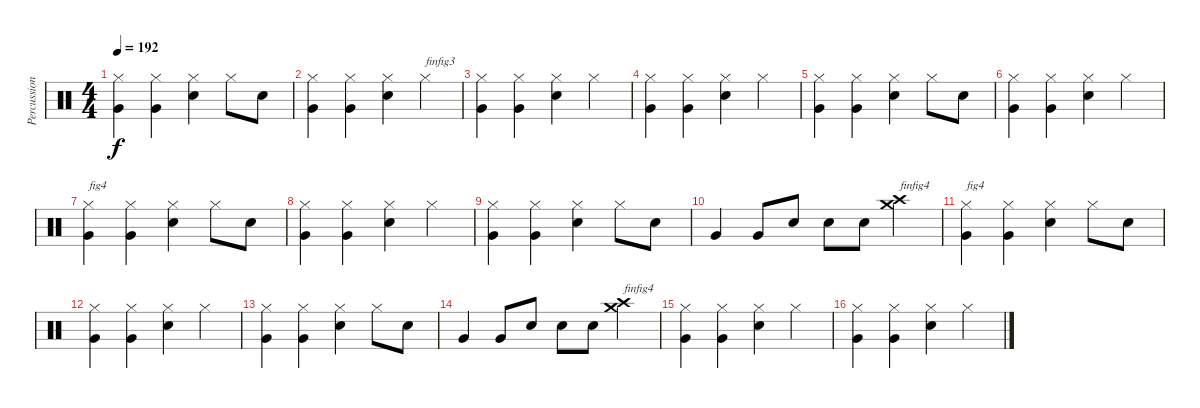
\track ("Percussions" "Percussion") {instrument percussion}
\staff {score}
\articulation defaults
\ts (4 4)
\tempo 192
\clef neutral
\ks c
("Very Low Tom (hit)" "Hi-Hat (closed)").4{dy f} ("Very Low Tom (hit)" "Hi-Hat (closed)").4 ("Snare (hit) 2" "Hi-Hat (closed)").4 "Hi-Hat (closed)".8 "Snare (hit) 2".8 |
("Very Low Tom (hit)" "Hi-Hat (closed)").4 ("Very Low Tom (hit)" "Hi-Hat (closed)").4 ("Snare (hit) 2" "Hi-Hat (closed)").4 "Hi-Hat (closed)".4{txt "finfig3"} |
("Very Low Tom (hit)" "Hi-Hat (closed)").4 ("Very Low Tom (hit)" "Hi-Hat (closed)").4 ("Snare (hit) 2" "Hi-Hat (closed)").4 "Hi-Hat (closed)".4 |
("Very Low Tom (hit)" "Hi-Hat (closed)").4 ("Very Low Tom (hit)" "Hi-Hat (closed)").4 ("Snare (hit) 2" "Hi-Hat (closed)").4 "Hi-Hat (closed)".4 |
("Very Low Tom (hit)" "Hi-Hat (closed)").4 ("Very Low Tom (hit)" "Hi-Hat (closed)").4 ("Snare (hit) 2" "Hi-Hat (closed)").4 "Hi-Hat (closed)".8 "Snare (hit) 2".8 |
("Very Low Tom (hit)" "Hi-Hat (closed)").4 ("Very Low Tom (hit)" "Hi-Hat (closed)").4 ("Snare (hit) 2" "Hi-Hat (closed)").4 "Hi-Hat (closed)".4 |
("Very Low Tom (hit)" "Hi-Hat (closed)").4{txt "fig4"} ("Very Low Tom (hit)" "Hi-Hat (closed)").4 ("Snare (hit) 2" "Hi-Hat (closed)").4 "Hi-Hat (closed)".8 "Snare (hit) 2".8 |
("Very Low Tom (hit)" "Hi-Hat (closed)").4 ("Very Low Tom (hit)" "Hi-Hat (closed)").4 ("Snare (hit) 2" "Hi-Hat (closed)").4 "Hi-Hat (closed)".4 |
("Very Low Tom (hit)" "Hi-Hat (closed)").4 ("Very Low Tom (hit)" "Hi-Hat (closed)").4 ("Snare (hit) 2" "Hi-Hat (closed)").4 "Hi-Hat (closed)".8 "Snare (hit) 2".8 |
"Very Low Tom (hit)".4 "Very Low Tom (hit)".8 "Snare (hit) 2".8 "Snare (hit) 2".8 "Snare (hit) 2".8 ("Crash high (hit)" "Crash medium (hit)").4{txt "finfig4"} |
("Very Low Tom (hit)" "Hi-Hat (closed)").4{txt "fig4"} ("Very Low Tom (hit)" "Hi-Hat (closed)").4 ("Snare (hit) 2" "Hi-Hat (closed)").4 "Hi-Hat (closed)".8 "Snare (hit) 2".8 |
("Very Low Tom (hit)" "Hi-Hat (closed)").4 ("Very Low Tom (hit)" "Hi-Hat (closed)").4 ("Snare (hit) 2" "Hi-Hat (closed)").4 "Hi-Hat (closed)".4 |
("Very Low Tom (hit)" "Hi-Hat (closed)").4 ("Very Low Tom (hit)" "Hi-Hat (closed)").4 ("Snare (hit) 2" "Hi-Hat (closed)").4 "Hi-Hat (closed)".8 "Snare (hit) 2".8 |
"Very Low Tom (hit)".4 "Very Low Tom (hit)".8 "Snare (hit) 2".8 "Snare (hit) 2".8 "Snare (hit) 2".8 ("Crash high (hit)" "Crash medium (hit)").4{txt "finfig4"} |
("Very Low Tom (hit)" "Hi-Hat (closed)").4 ("Very Low Tom (hit)" "Hi-Hat (closed)").4 ("Snare (hit) 2" "Hi-Hat (closed)").4 "Hi-Hat (closed)".4 |
("Very Low Tom (hit)" "Hi-Hat (closed)").4 ("Very Low Tom (hit)" "Hi-Hat (closed)").4 ("Snare (hit) 2" "Hi-Hat (closed)").4 "Hi-Hat (closed)".4
